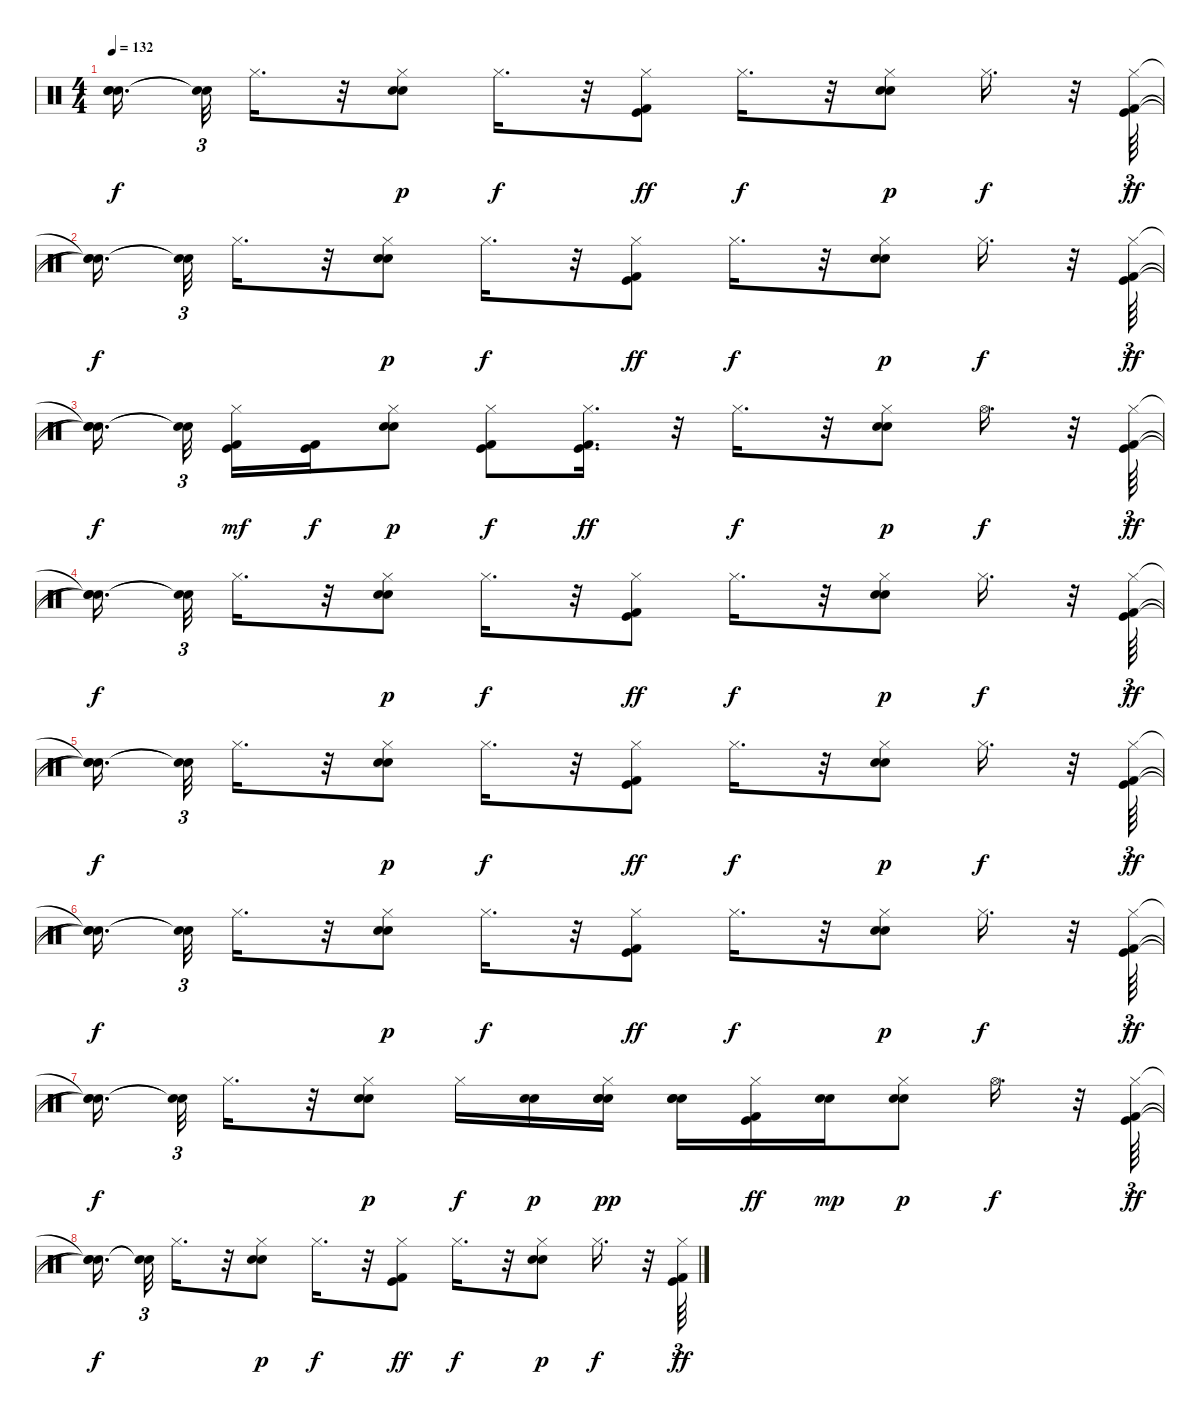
\track "" {instrument percussion}
\staff {score}
\articulation defaults
\ts (4 4)
\tempo 132
\clef neutral
\ks c
("Snare (hit)"{t} "Snare (hit)"{t} "Snare (hit)"{t}).16{d dy f beam splitsecondary} ("Snare (hit)"{t} "Snare (hit)"{t}).32{tu (3 2)} "Hi-Hat (closed)".16{d} r.32 ("Electric Snare (hit)" "Snare (hit) 2" "Hi-Hat (closed)").8{dy p} "Hi-Hat (closed)".16{d dy f} r.32 ("Kick (hit) 2" "Kick (hit)" "Hi-Hat (closed)").8{dy ff} "Hi-Hat (closed)".16{d dy f} r.32 ("Electric Snare (hit)" "Snare (hit) 2" "Hi-Hat (closed)").8{dy p} "Hi-Hat (closed)".16{d dy f} r.32 ("Kick (hit) 2" "Kick (hit)" "Hi-Hat (closed)").64{tu (3 2) dy ff} |
("Snare (hit)"{t} "Snare (hit)"{t} "Snare (hit)"{t}).16{d dy f beam splitsecondary} ("Snare (hit)"{t} "Snare (hit)"{t}).32{tu (3 2)} "Hi-Hat (closed)".16{d} r.32 ("Electric Snare (hit)" "Snare (hit) 2" "Hi-Hat (closed)").8{dy p} "Hi-Hat (closed)".16{d dy f} r.32 ("Kick (hit) 2" "Kick (hit)" "Hi-Hat (closed)").8{dy ff} "Hi-Hat (closed)".16{d dy f} r.32 ("Electric Snare (hit)" "Snare (hit) 2" "Hi-Hat (closed)").8{dy p} "Hi-Hat (closed)".16{d dy f} r.32 ("Kick (hit) 2" "Kick (hit)" "Hi-Hat (closed)").64{tu (3 2) dy ff} |
("Snare (hit)"{t} "Snare (hit)"{t} "Snare (hit)"{t}).16{d dy f beam splitsecondary} ("Snare (hit)"{t} "Snare (hit)"{t}).32{tu (3 2) beam splitsecondary} ("Kick (hit) 2" "Kick (hit)" "Hi-Hat (closed)").16{dy mf} ("Kick (hit)" "Kick (hit) 2").16{dy f} ("Electric Snare (hit)" "Snare (hit) 2" "Hi-Hat (closed)").8{dy p} ("Kick (hit)" "Kick (hit) 2" "Hi-Hat (closed)").8{dy f} ("Kick (hit) 2" "Kick (hit)" "Hi-Hat (closed)").16{d dy ff} r.32 "Hi-Hat (closed)".16{d dy f} r.32 ("Electric Snare (hit)" "Snare (hit) 2" "Hi-Hat (closed)").8{dy p} "Hi-Hat (open)".16{d dy f} r.32 ("Kick (hit) 2" "Kick (hit)" "Hi-Hat (closed)").64{tu (3 2) dy ff} |
("Snare (hit)"{t} "Snare (hit)"{t} "Snare (hit)"{t}).16{d dy f beam splitsecondary} ("Snare (hit)"{t} "Snare (hit)"{t}).32{tu (3 2)} "Hi-Hat (closed)".16{d} r.32 ("Electric Snare (hit)" "Snare (hit) 2" "Hi-Hat (closed)").8{dy p} "Hi-Hat (closed)".16{d dy f} r.32 ("Kick (hit) 2" "Kick (hit)" "Hi-Hat (closed)").8{dy ff} "Hi-Hat (closed)".16{d dy f} r.32 ("Electric Snare (hit)" "Snare (hit) 2" "Hi-Hat (closed)").8{dy p} "Hi-Hat (closed)".16{d dy f} r.32 ("Kick (hit) 2" "Kick (hit)" "Hi-Hat (closed)").64{tu (3 2) dy ff} |
("Snare (hit)"{t} "Snare (hit)"{t} "Snare (hit)"{t}).16{d dy f beam splitsecondary} ("Snare (hit)"{t} "Snare (hit)"{t}).32{tu (3 2)} "Hi-Hat (closed)".16{d} r.32 ("Electric Snare (hit)" "Snare (hit) 2" "Hi-Hat (closed)").8{dy p} "Hi-Hat (closed)".16{d dy f} r.32 ("Kick (hit) 2" "Kick (hit)" "Hi-Hat (closed)").8{dy ff} "Hi-Hat (closed)".16{d dy f} r.32 ("Electric Snare (hit)" "Snare (hit) 2" "Hi-Hat (closed)").8{dy p} "Hi-Hat (closed)".16{d dy f} r.32 ("Kick (hit) 2" "Kick (hit)" "Hi-Hat (closed)").64{tu (3 2) dy ff} |
("Snare (hit)"{t} "Snare (hit)"{t} "Snare (hit)"{t}).16{d dy f beam splitsecondary} ("Snare (hit)"{t} "Snare (hit)"{t}).32{tu (3 2)} "Hi-Hat (closed)".16{d} r.32 ("Electric Snare (hit)" "Snare (hit) 2" "Hi-Hat (closed)").8{dy p} "Hi-Hat (closed)".16{d dy f} r.32 ("Kick (hit) 2" "Kick (hit)" "Hi-Hat (closed)").8{dy ff} "Hi-Hat (closed)".16{d dy f} r.32 ("Electric Snare (hit)" "Snare (hit) 2" "Hi-Hat (closed)").8{dy p} "Hi-Hat (closed)".16{d dy f} r.32 ("Kick (hit) 2" "Kick (hit)" "Hi-Hat (closed)").64{tu (3 2) dy ff} |
("Snare (hit)"{t} "Snare (hit)"{t} "Snare (hit)"{t}).16{d dy f beam splitsecondary} ("Snare (hit)"{t} "Snare (hit)"{t}).32{tu (3 2)} "Hi-Hat (closed)".16{d} r.32 ("Electric Snare (hit)" "Snare (hit) 2" "Hi-Hat (closed)").8{dy p} "Hi-Hat (closed)".16{dy f} ("Snare (hit) 2" "Electric Snare (hit)").16{dy p} ("Snare (hit) 2" "Electric Snare (hit)" "Snare (hit) 2" "Hi-Hat (closed)").16{dy pp} ("Snare (hit) 2" "Electric Snare (hit)" "Snare (hit) 2").16 ("Kick (hit) 2" "Kick (hit)" "Hi-Hat (closed)").16{dy ff} ("Snare (hit) 2" "Electric Snare (hit)").16{dy mp} ("Electric Snare (hit)" "Snare (hit) 2" "Hi-Hat (closed)").8{dy p} "Hi-Hat (open)".16{d dy f} r.32 ("Kick (hit) 2" "Kick (hit)" "Hi-Hat (closed)").64{tu (3 2) dy ff} |
("Snare (hit)"{t} "Snare (hit)"{t} "Snare (hit)"{t}).16{d dy f beam splitsecondary} ("Snare (hit)"{t} "Snare (hit)"{t}).32{tu (3 2)} "Hi-Hat (closed)".16{d} r.32 ("Electric Snare (hit)" "Snare (hit) 2" "Hi-Hat (closed)").8{dy p} "Hi-Hat (closed)".16{d dy f} r.32 ("Kick (hit) 2" "Kick (hit)" "Hi-Hat (closed)").8{dy ff} "Hi-Hat (closed)".16{d dy f} r.32 ("Electric Snare (hit)" "Snare (hit) 2" "Hi-Hat (closed)").8{dy p} "Hi-Hat (closed)".16{d dy f} r.32 ("Kick (hit) 2" "Kick (hit)" "Hi-Hat (closed)").64{tu (3 2) dy ff}
